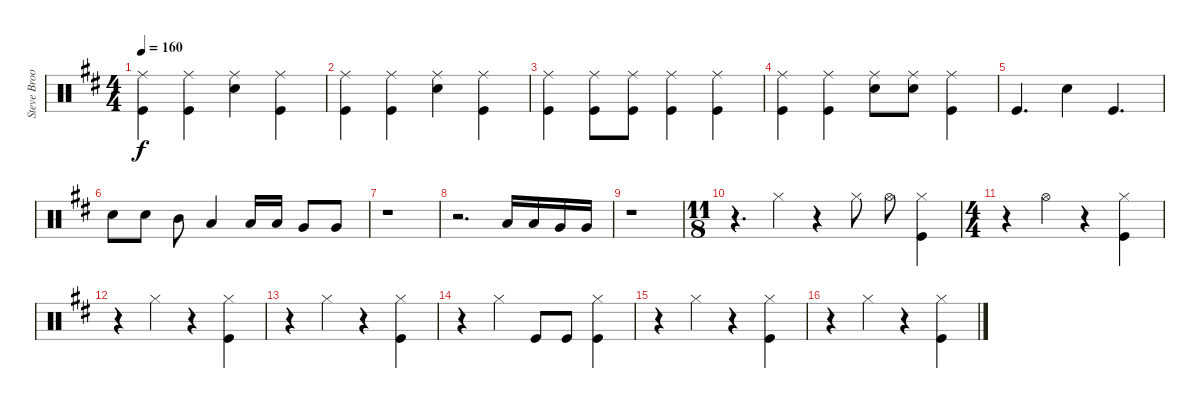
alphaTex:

\track ("Steve Brookins Drums" "Steve Broo") {instrument percussion}
\staff {score}
\articulation defaults
\ts (4 4)
\tempo 160
\clef neutral
\ks d
("Ride (middle)" "Kick (hit)").4{dy f} ("Ride (middle)" "Kick (hit)").4 ("Ride (middle)" "Snare (hit) 2").4 ("Ride (middle)" "Kick (hit)").4 |
("Ride (middle)" "Kick (hit)").4 ("Ride (middle)" "Kick (hit)").4 ("Ride (middle)" "Snare (hit) 2").4 ("Ride (middle)" "Kick (hit)").4 |
("Ride (middle)" "Kick (hit)").4 ("Ride (middle)" "Kick (hit)").8 ("Ride (middle)" "Kick (hit)").8 ("Ride (middle)" "Kick (hit)").4 ("Ride (middle)" "Kick (hit)").4 |
("Ride (middle)" "Kick (hit)").4 ("Ride (middle)" "Kick (hit)").4 ("Ride (middle)" "Snare (hit) 2").8 ("Ride (middle)" "Snare (hit) 2").8 ("Ride (middle)" "Kick (hit)").4 |
"Kick (hit)".4{d} "Snare (hit) 2".4 "Kick (hit)".4{d} |
"Snare (hit) 2".8 "Snare (hit) 2".8 "Mid Tom (hit)".8 "Low Tom (hit)".4 "Low Tom (hit)".16 "Low Tom (hit)".16 "Very Low Tom (hit)".8 "Very Low Tom (hit)".8 |
r.1 |
r.2{d} "Low Tom (hit)".16 "Low Tom (hit)".16 "Very Low Tom (hit)".16 "Very Low Tom (hit)".16 |
r.1 |
\ts (11 8)
r.4{d} "Hi-Hat (closed)".4 r.4 "Hi-Hat (closed)".8 "Hi-Hat (open)".8 ("Hi-Hat (closed)" "Kick (hit)").4 |
\ts (4 4)
r.4 "Hi-Hat (open)".4 r.4 ("Hi-Hat (closed)" "Kick (hit)").4 |
r.4 "Hi-Hat (closed)".4 r.4 ("Hi-Hat (closed)" "Kick (hit)").4 |
r.4 "Hi-Hat (closed)".4 r.4 ("Hi-Hat (closed)" "Kick (hit)").4 |
r.4 "Hi-Hat (closed)".4 "Kick (hit)".8 "Kick (hit)".8 ("Hi-Hat (closed)" "Kick (hit)").4 |
r.4 "Hi-Hat (closed)".4 r.4 ("Hi-Hat (closed)" "Kick (hit)").4 |
r.4 "Hi-Hat (closed)".4 r.4 ("Hi-Hat (closed)" "Kick (hit)").4
